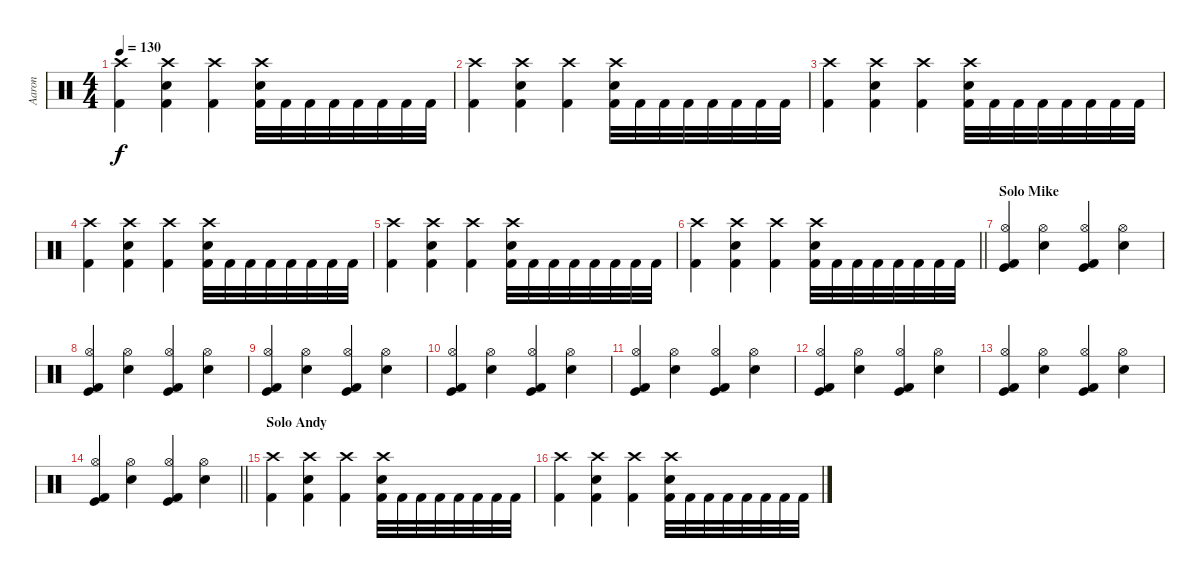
\track ("Aaron" "Aaron") {instrument percussion}
\staff {score}
\articulation defaults
\ts (4 4)
\tempo 130
\clef neutral
\ks c
("Crash high (hit)" "Kick (hit) 2").4{dy f} ("Crash high (hit)" "Snare (hit) 2" "Kick (hit) 2").4 ("Crash high (hit)" "Kick (hit) 2").4 ("Crash high (hit)" "Snare (hit) 2" "Kick (hit) 2").32 "Kick (hit) 2".32 "Kick (hit) 2".32 "Kick (hit) 2".32 "Kick (hit) 2".32 "Kick (hit) 2".32 "Kick (hit) 2".32 "Kick (hit) 2".32 |
("Crash high (hit)" "Kick (hit) 2").4 ("Crash high (hit)" "Snare (hit) 2" "Kick (hit) 2").4 ("Crash high (hit)" "Kick (hit) 2").4 ("Crash high (hit)" "Snare (hit) 2" "Kick (hit) 2").32 "Kick (hit) 2".32 "Kick (hit) 2".32 "Kick (hit) 2".32 "Kick (hit) 2".32 "Kick (hit) 2".32 "Kick (hit) 2".32 "Kick (hit) 2".32 |
("Crash high (hit)" "Kick (hit) 2").4 ("Crash high (hit)" "Snare (hit) 2" "Kick (hit) 2").4 ("Crash high (hit)" "Kick (hit) 2").4 ("Crash high (hit)" "Snare (hit) 2" "Kick (hit) 2").32 "Kick (hit) 2".32 "Kick (hit) 2".32 "Kick (hit) 2".32 "Kick (hit) 2".32 "Kick (hit) 2".32 "Kick (hit) 2".32 "Kick (hit) 2".32 |
("Crash high (hit)" "Kick (hit) 2").4 ("Crash high (hit)" "Snare (hit) 2" "Kick (hit) 2").4 ("Crash high (hit)" "Kick (hit) 2").4 ("Crash high (hit)" "Snare (hit) 2" "Kick (hit) 2").32 "Kick (hit) 2".32 "Kick (hit) 2".32 "Kick (hit) 2".32 "Kick (hit) 2".32 "Kick (hit) 2".32 "Kick (hit) 2".32 "Kick (hit) 2".32 |
("Crash high (hit)" "Kick (hit) 2").4 ("Crash high (hit)" "Snare (hit) 2" "Kick (hit) 2").4 ("Crash high (hit)" "Kick (hit) 2").4 ("Crash high (hit)" "Snare (hit) 2" "Kick (hit) 2").32 "Kick (hit) 2".32 "Kick (hit) 2".32 "Kick (hit) 2".32 "Kick (hit) 2".32 "Kick (hit) 2".32 "Kick (hit) 2".32 "Kick (hit) 2".32 |
\barLineRight lightlight
("Crash high (hit)" "Kick (hit) 2").4 ("Crash high (hit)" "Snare (hit) 2" "Kick (hit) 2").4 ("Crash high (hit)" "Kick (hit) 2").4 ("Crash high (hit)" "Snare (hit) 2" "Kick (hit) 2").32 "Kick (hit) 2".32 "Kick (hit) 2".32 "Kick (hit) 2".32 "Kick (hit) 2".32 "Kick (hit) 2".32 "Kick (hit) 2".32 "Kick (hit) 2".32 |
\section ("" "Solo Mike")
("Hi-Hat (open)" "Kick (hit)" "Kick (hit) 2").4 ("Hi-Hat (open)" "Snare (hit) 2").4 ("Hi-Hat (open)" "Kick (hit) 2" "Kick (hit)").4 ("Hi-Hat (open)" "Snare (hit) 2").4 |
("Hi-Hat (open)" "Kick (hit)" "Kick (hit) 2").4 ("Hi-Hat (open)" "Snare (hit) 2").4 ("Hi-Hat (open)" "Kick (hit) 2" "Kick (hit)").4 ("Hi-Hat (open)" "Snare (hit) 2").4 |
("Hi-Hat (open)" "Kick (hit)" "Kick (hit) 2").4 ("Hi-Hat (open)" "Snare (hit) 2").4 ("Hi-Hat (open)" "Kick (hit) 2" "Kick (hit)").4 ("Hi-Hat (open)" "Snare (hit) 2").4 |
("Hi-Hat (open)" "Kick (hit)" "Kick (hit) 2").4 ("Hi-Hat (open)" "Snare (hit) 2").4 ("Hi-Hat (open)" "Kick (hit) 2" "Kick (hit)").4 ("Hi-Hat (open)" "Snare (hit) 2").4 |
("Hi-Hat (open)" "Kick (hit)" "Kick (hit) 2").4 ("Hi-Hat (open)" "Snare (hit) 2").4 ("Hi-Hat (open)" "Kick (hit) 2" "Kick (hit)").4 ("Hi-Hat (open)" "Snare (hit) 2").4 |
("Hi-Hat (open)" "Kick (hit)" "Kick (hit) 2").4 ("Hi-Hat (open)" "Snare (hit) 2").4 ("Hi-Hat (open)" "Kick (hit) 2" "Kick (hit)").4 ("Hi-Hat (open)" "Snare (hit) 2").4 |
("Hi-Hat (open)" "Kick (hit)" "Kick (hit) 2").4 ("Hi-Hat (open)" "Snare (hit) 2").4 ("Hi-Hat (open)" "Kick (hit) 2" "Kick (hit)").4 ("Hi-Hat (open)" "Snare (hit) 2").4 |
\barLineRight lightlight
("Hi-Hat (open)" "Kick (hit)" "Kick (hit) 2").4 ("Hi-Hat (open)" "Snare (hit) 2").4 ("Hi-Hat (open)" "Kick (hit) 2" "Kick (hit)").4 ("Hi-Hat (open)" "Snare (hit) 2").4 |
\section ("" "Solo Andy")
("Crash high (hit)" "Kick (hit) 2").4 ("Crash high (hit)" "Snare (hit) 2" "Kick (hit) 2").4 ("Crash high (hit)" "Kick (hit) 2").4 ("Crash high (hit)" "Snare (hit) 2" "Kick (hit) 2").32 "Kick (hit) 2".32 "Kick (hit) 2".32 "Kick (hit) 2".32 "Kick (hit) 2".32 "Kick (hit) 2".32 "Kick (hit) 2".32 "Kick (hit) 2".32 |
("Crash high (hit)" "Kick (hit) 2").4 ("Crash high (hit)" "Snare (hit) 2" "Kick (hit) 2").4 ("Crash high (hit)" "Kick (hit) 2").4 ("Crash high (hit)" "Snare (hit) 2" "Kick (hit) 2").32 "Kick (hit) 2".32 "Kick (hit) 2".32 "Kick (hit) 2".32 "Kick (hit) 2".32 "Kick (hit) 2".32 "Kick (hit) 2".32 "Kick (hit) 2".32
